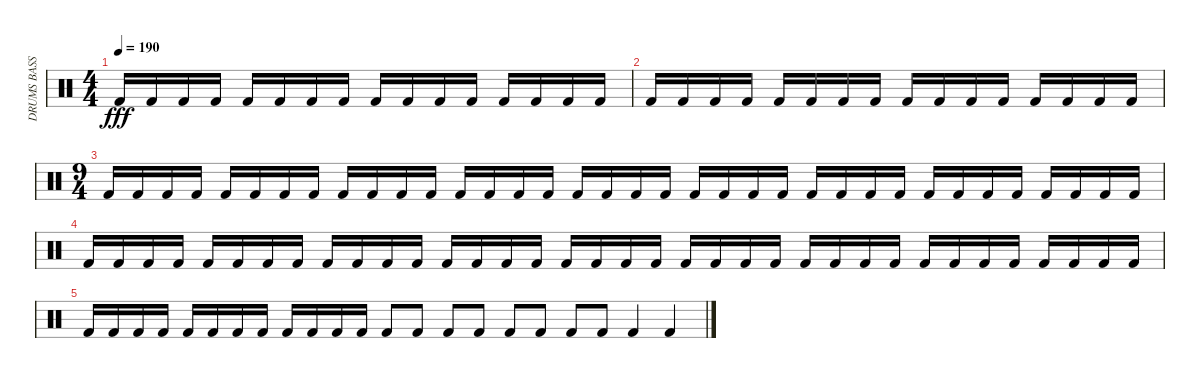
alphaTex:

\track ("DRUMS BASS" "DRUMS BASS") {instrument percussion}
\staff {score}
\articulation defaults
\ts (4 4)
\tempo 190
\clef neutral
\ks c "Kick (hit) 2".16{dy fff} "Kick (hit) 2".16 "Kick (hit) 2".16 "Kick (hit) 2".16 "Kick (hit) 2".16 "Kick (hit) 2".16 "Kick (hit) 2".16 "Kick (hit) 2".16 "Kick (hit) 2".16 "Kick (hit) 2".16 "Kick (hit) 2".16 "Kick (hit) 2".16 "Kick (hit) 2".16 "Kick (hit) 2".16 "Kick (hit) 2".16 "Kick (hit) 2".16
|
"Kick (hit) 2".16 "Kick (hit) 2".16 "Kick (hit) 2".16 "Kick (hit) 2".16 "Kick (hit) 2".16 "Kick (hit) 2".16 "Kick (hit) 2".16 "Kick (hit) 2".16 "Kick (hit) 2".16 "Kick (hit) 2".16 "Kick (hit) 2".16 "Kick (hit) 2".16 "Kick (hit) 2".16 "Kick (hit) 2".16 "Kick (hit) 2".16 "Kick (hit) 2".16 |
\ts (9 4)
"Kick (hit) 2".16 "Kick (hit) 2".16 "Kick (hit) 2".16 "Kick (hit) 2".16 "Kick (hit) 2".16 "Kick (hit) 2".16 "Kick (hit) 2".16 "Kick (hit) 2".16 "Kick (hit) 2".16 "Kick (hit) 2".16 "Kick (hit) 2".16 "Kick (hit) 2".16 "Kick (hit) 2".16 "Kick (hit) 2".16 "Kick (hit) 2".16 "Kick (hit) 2".16 "Kick (hit) 2".16 "Kick (hit) 2".16 "Kick (hit) 2".16 "Kick (hit) 2".16 "Kick (hit) 2".16 "Kick (hit) 2".16 "Kick (hit) 2".16 "Kick (hit) 2".16 "Kick (hit) 2".16 "Kick (hit) 2".16 "Kick (hit) 2".16 "Kick (hit) 2".16 "Kick (hit) 2".16 "Kick (hit) 2".16 "Kick (hit) 2".16 "Kick (hit) 2".16 "Kick (hit) 2".16 "Kick (hit) 2".16 "Kick (hit) 2".16 "Kick (hit) 2".16 |
"Kick (hit) 2".16 "Kick (hit) 2".16 "Kick (hit) 2".16 "Kick (hit) 2".16 "Kick (hit) 2".16 "Kick (hit) 2".16 "Kick (hit) 2".16 "Kick (hit) 2".16 "Kick (hit) 2".16 "Kick (hit) 2".16 "Kick (hit) 2".16 "Kick (hit) 2".16 "Kick (hit) 2".16 "Kick (hit) 2".16 "Kick (hit) 2".16 "Kick (hit) 2".16 "Kick (hit) 2".16 "Kick (hit) 2".16 "Kick (hit) 2".16 "Kick (hit) 2".16 "Kick (hit) 2".16 "Kick (hit) 2".16 "Kick (hit) 2".16 "Kick (hit) 2".16 "Kick (hit) 2".16 "Kick (hit) 2".16 "Kick (hit) 2".16 "Kick (hit) 2".16 "Kick (hit) 2".16 "Kick (hit) 2".16 "Kick (hit) 2".16 "Kick (hit) 2".16 "Kick (hit) 2".16 "Kick (hit) 2".16 "Kick (hit) 2".16 "Kick (hit) 2".16 |
"Kick (hit) 2".16 "Kick (hit) 2".16 "Kick (hit) 2".16 "Kick (hit) 2".16 "Kick (hit) 2".16 "Kick (hit) 2".16 "Kick (hit) 2".16 "Kick (hit) 2".16 "Kick (hit) 2".16 "Kick (hit) 2".16 "Kick (hit) 2".16 "Kick (hit) 2".16 "Kick (hit) 2".8 "Kick (hit) 2".8 "Kick (hit) 2".8 "Kick (hit) 2".8 "Kick (hit) 2".8 "Kick (hit) 2".8 "Kick (hit) 2".8 "Kick (hit) 2".8 "Kick (hit) 2".4 "Kick (hit) 2".4
